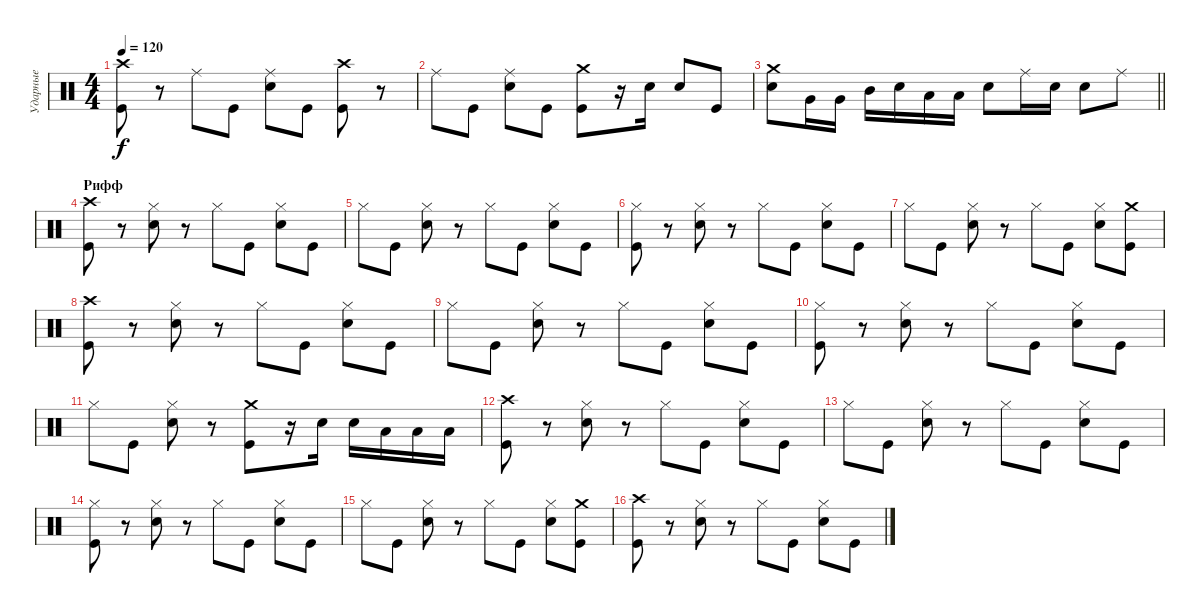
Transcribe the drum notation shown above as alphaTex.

\track ("Ударные" "Ударные") {instrument percussion}
\staff {score}
\articulation defaults
\ts (4 4)
\tempo 120
\clef neutral
\ks c
("Crash high (hit)" "Kick (hit)").8{dy f} r.8 "Ride (middle)".8 "Kick (hit)".8 ("Ride (middle)" "Snare (hit) 2").8 "Kick (hit)".8 ("Crash high (hit)" "Kick (hit)").8 r.8 |
"Ride (middle)".8 "Kick (hit)".8 ("Ride (middle)" "Snare (hit) 2").8 "Kick (hit)".8 ("Crash medium (hit)" "Kick (hit)").8 r.16 "Snare (hit) 2".16 "Snare (hit) 2".8 "Kick (hit)".8 |
\barLineRight lightlight
("Crash medium (hit)" "Snare (hit) 2").8 "Very Low Tom (hit)".16 "Very Low Tom (hit)".16 "Mid Tom (hit)".16 "Snare (hit) 2".16 "Low Tom (hit)".16 "Low Tom (hit)".16 "Snare (hit) 2".8 "Ride (middle)".16 "Snare (hit) 2".16 "Snare (hit) 2".8 "Ride (middle)".8 |
\section ("" "Рифф")
("Crash high (hit)" "Kick (hit)").8 r.8 ("Hi-Hat (closed)" "Snare (hit) 2").8 r.8 "Hi-Hat (closed)".8 "Kick (hit)".8 ("Hi-Hat (closed)" "Snare (hit) 2").8 "Kick (hit)".8 |
"Hi-Hat (closed)".8 "Kick (hit)".8 ("Hi-Hat (closed)" "Snare (hit) 2").8 r.8 "Hi-Hat (closed)".8 "Kick (hit)".8 ("Hi-Hat (closed)" "Snare (hit) 2").8 "Kick (hit)".8 |
("Hi-Hat (closed)" "Kick (hit)").8 r.8 ("Hi-Hat (closed)" "Snare (hit) 2").8 r.8 "Hi-Hat (closed)".8 "Kick (hit)".8 ("Hi-Hat (closed)" "Snare (hit) 2").8 "Kick (hit)".8 |
"Hi-Hat (closed)".8 "Kick (hit)".8 ("Hi-Hat (closed)" "Snare (hit) 2").8 r.8 "Hi-Hat (closed)".8 "Kick (hit)".8 ("Hi-Hat (closed)" "Snare (hit) 2").8 ("Crash medium (hit)" "Kick (hit)").8 |
("Crash high (hit)" "Kick (hit)").8 r.8 ("Hi-Hat (closed)" "Snare (hit) 2").8 r.8 "Hi-Hat (closed)".8 "Kick (hit)".8 ("Hi-Hat (closed)" "Snare (hit) 2").8 "Kick (hit)".8 |
"Hi-Hat (closed)".8 "Kick (hit)".8 ("Hi-Hat (closed)" "Snare (hit) 2").8 r.8 "Hi-Hat (closed)".8 "Kick (hit)".8 ("Hi-Hat (closed)" "Snare (hit) 2").8 "Kick (hit)".8 |
("Hi-Hat (closed)" "Kick (hit)").8 r.8 ("Hi-Hat (closed)" "Snare (hit) 2").8 r.8 "Hi-Hat (closed)".8 "Kick (hit)".8 ("Hi-Hat (closed)" "Snare (hit) 2").8 "Kick (hit)".8 |
"Hi-Hat (closed)".8 "Kick (hit)".8 ("Hi-Hat (closed)" "Snare (hit) 2").8 r.8 ("Crash medium (hit)" "Kick (hit)").8 r.16 "Snare (hit) 2".16 "Snare (hit) 2".16 "Low Tom (hit)".16 "Low Tom (hit)".16 "Low Tom (hit)".16 |
("Crash high (hit)" "Kick (hit)").8 r.8 ("Hi-Hat (closed)" "Snare (hit) 2").8 r.8 "Hi-Hat (closed)".8 "Kick (hit)".8 ("Hi-Hat (closed)" "Snare (hit) 2").8 "Kick (hit)".8 |
"Hi-Hat (closed)".8 "Kick (hit)".8 ("Hi-Hat (closed)" "Snare (hit) 2").8 r.8 "Hi-Hat (closed)".8 "Kick (hit)".8 ("Hi-Hat (closed)" "Snare (hit) 2").8 "Kick (hit)".8 |
("Hi-Hat (closed)" "Kick (hit)").8 r.8 ("Hi-Hat (closed)" "Snare (hit) 2").8 r.8 "Hi-Hat (closed)".8 "Kick (hit)".8 ("Hi-Hat (closed)" "Snare (hit) 2").8 "Kick (hit)".8 |
"Hi-Hat (closed)".8 "Kick (hit)".8 ("Hi-Hat (closed)" "Snare (hit) 2").8 r.8 "Hi-Hat (closed)".8 "Kick (hit)".8 ("Hi-Hat (closed)" "Snare (hit) 2").8 ("Crash medium (hit)" "Kick (hit)").8 |
("Crash high (hit)" "Kick (hit)").8 r.8 ("Hi-Hat (closed)" "Snare (hit) 2").8 r.8 "Hi-Hat (closed)".8 "Kick (hit)".8 ("Hi-Hat (closed)" "Snare (hit) 2").8 "Kick (hit)".8
